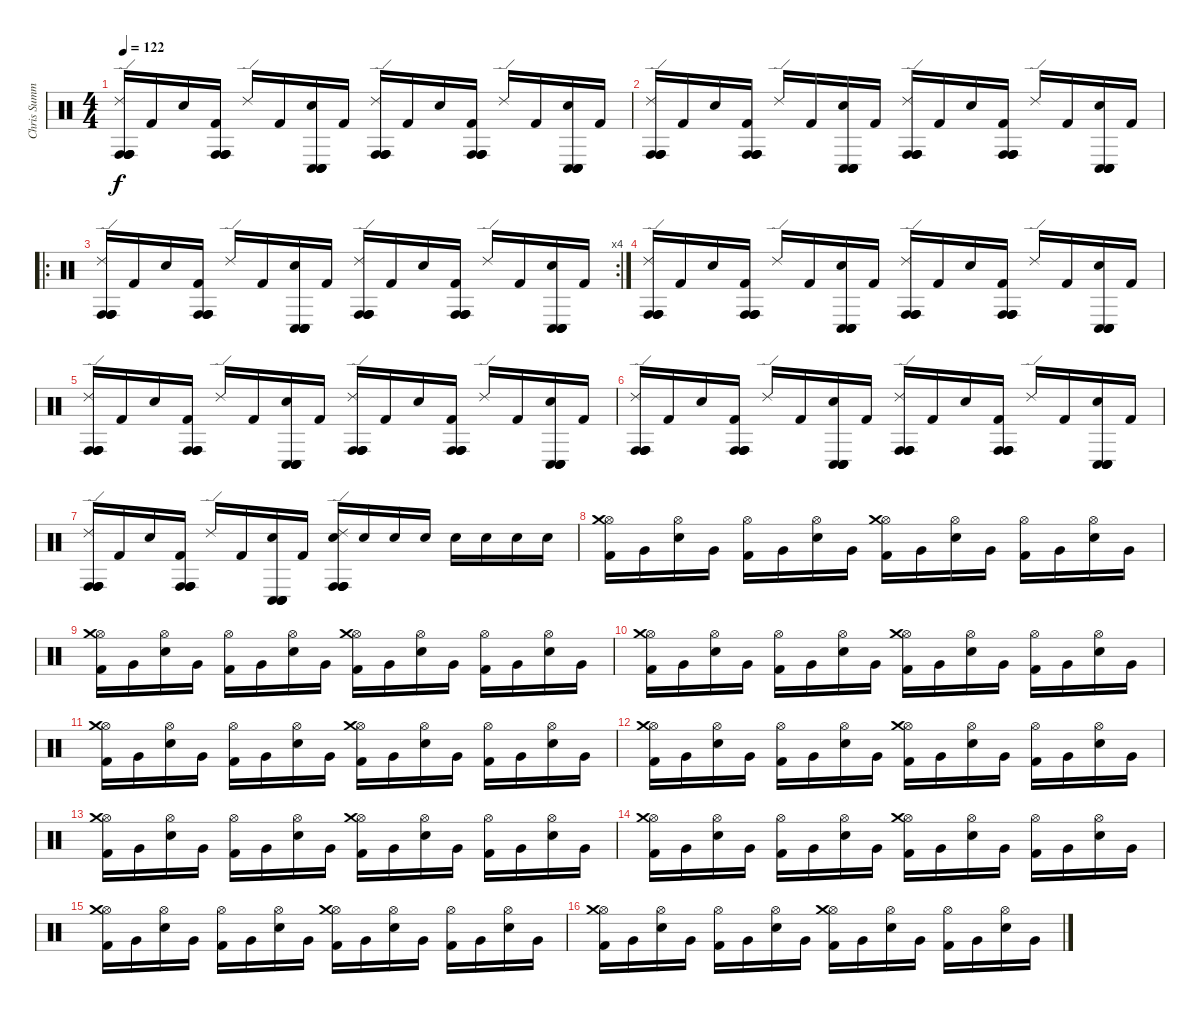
\track ("Chris Summers" "Chris Summ") {instrument percussion}
\staff {score}
\articulation defaults
\ts (4 4)
\tempo 122
\clef neutral
\ks c
("Conga high (hit)" "Ride (edge) 2" "Conga high (hit)" "Conga high (hit)" "Conga high (hit)").16{dy f} "Kick (hit) 2".16 "Electric Snare (hit)".16 ("Kick (hit) 2" "Conga high (hit)" "Conga high (hit)" "Conga high (hit)" "Conga high (hit)").16 "Ride (edge) 2".16 "Kick (hit) 2".16 ("Electric Snare (hit)" "Conga low (hit)" "Conga low (hit)" "Conga low (hit)" "Conga low (hit)").16 "Kick (hit) 2".16 ("Conga high (hit)" "Ride (edge) 2" "Conga high (hit)" "Conga high (hit)" "Conga high (hit)").16 "Kick (hit) 2".16 "Electric Snare (hit)".16 ("Kick (hit) 2" "Conga high (hit)" "Conga high (hit)" "Conga high (hit)" "Conga high (hit)").16 "Ride (edge) 2".16 "Kick (hit) 2".16 ("Electric Snare (hit)" "Conga low (hit)" "Conga low (hit)" "Conga low (hit)" "Conga low (hit)").16 "Kick (hit) 2".16 |
("Conga high (hit)" "Ride (edge) 2" "Conga high (hit)" "Conga high (hit)" "Conga high (hit)").16 "Kick (hit) 2".16 "Electric Snare (hit)".16 ("Kick (hit) 2" "Conga high (hit)" "Conga high (hit)" "Conga high (hit)" "Conga high (hit)").16 "Ride (edge) 2".16 "Kick (hit) 2".16 ("Electric Snare (hit)" "Conga low (hit)" "Conga low (hit)" "Conga low (hit)" "Conga low (hit)").16 "Kick (hit) 2".16 ("Conga high (hit)" "Ride (edge) 2" "Conga high (hit)" "Conga high (hit)" "Conga high (hit)").16 "Kick (hit) 2".16 "Electric Snare (hit)".16 ("Kick (hit) 2" "Conga high (hit)" "Conga high (hit)" "Conga high (hit)" "Conga high (hit)").16 "Ride (edge) 2".16 "Kick (hit) 2".16 ("Electric Snare (hit)" "Conga low (hit)" "Conga low (hit)" "Conga low (hit)" "Conga low (hit)").16 "Kick (hit) 2".16 |
\ro
\rc 4
("Conga high (hit)" "Ride (edge) 2" "Conga high (hit)" "Conga high (hit)" "Conga high (hit)").16 "Kick (hit) 2".16 "Electric Snare (hit)".16 ("Kick (hit) 2" "Conga high (hit)" "Conga high (hit)" "Conga high (hit)" "Conga high (hit)").16 "Ride (edge) 2".16 "Kick (hit) 2".16 ("Electric Snare (hit)" "Conga low (hit)" "Conga low (hit)" "Conga low (hit)" "Conga low (hit)").16 "Kick (hit) 2".16 ("Conga high (hit)" "Ride (edge) 2" "Conga high (hit)" "Conga high (hit)" "Conga high (hit)").16 "Kick (hit) 2".16 "Electric Snare (hit)".16 ("Kick (hit) 2" "Conga high (hit)" "Conga high (hit)" "Conga high (hit)" "Conga high (hit)").16 "Ride (edge) 2".16 "Kick (hit) 2".16 ("Electric Snare (hit)" "Conga low (hit)" "Conga low (hit)" "Conga low (hit)" "Conga low (hit)").16 "Kick (hit) 2".16 |
("Conga high (hit)" "Ride (edge) 2" "Conga high (hit)" "Conga high (hit)" "Conga high (hit)").16 "Kick (hit) 2".16 "Electric Snare (hit)".16 ("Kick (hit) 2" "Conga high (hit)" "Conga high (hit)" "Conga high (hit)" "Conga high (hit)").16 "Ride (edge) 2".16 "Kick (hit) 2".16 ("Electric Snare (hit)" "Conga low (hit)" "Conga low (hit)" "Conga low (hit)" "Conga low (hit)").16 "Kick (hit) 2".16 ("Conga high (hit)" "Ride (edge) 2" "Conga high (hit)" "Conga high (hit)" "Conga high (hit)").16 "Kick (hit) 2".16 "Electric Snare (hit)".16 ("Kick (hit) 2" "Conga high (hit)" "Conga high (hit)" "Conga high (hit)" "Conga high (hit)").16 "Ride (edge) 2".16 "Kick (hit) 2".16 ("Electric Snare (hit)" "Conga low (hit)" "Conga low (hit)" "Conga low (hit)" "Conga low (hit)").16 "Kick (hit) 2".16 |
("Conga high (hit)" "Ride (edge) 2" "Conga high (hit)" "Conga high (hit)" "Conga high (hit)").16 "Kick (hit) 2".16 "Electric Snare (hit)".16 ("Kick (hit) 2" "Conga high (hit)" "Conga high (hit)" "Conga high (hit)" "Conga high (hit)").16 "Ride (edge) 2".16 "Kick (hit) 2".16 ("Electric Snare (hit)" "Conga low (hit)" "Conga low (hit)" "Conga low (hit)" "Conga low (hit)").16 "Kick (hit) 2".16 ("Conga high (hit)" "Ride (edge) 2" "Conga high (hit)" "Conga high (hit)" "Conga high (hit)").16 "Kick (hit) 2".16 "Electric Snare (hit)".16 ("Kick (hit) 2" "Conga high (hit)" "Conga high (hit)" "Conga high (hit)" "Conga high (hit)").16 "Ride (edge) 2".16 "Kick (hit) 2".16 ("Electric Snare (hit)" "Conga low (hit)" "Conga low (hit)" "Conga low (hit)" "Conga low (hit)").16 "Kick (hit) 2".16 |
("Conga high (hit)" "Ride (edge) 2" "Conga high (hit)" "Conga high (hit)" "Conga high (hit)").16 "Kick (hit) 2".16 "Electric Snare (hit)".16 ("Kick (hit) 2" "Conga high (hit)" "Conga high (hit)" "Conga high (hit)" "Conga high (hit)").16 "Ride (edge) 2".16 "Kick (hit) 2".16 ("Electric Snare (hit)" "Conga low (hit)" "Conga low (hit)" "Conga low (hit)" "Conga low (hit)").16 "Kick (hit) 2".16 ("Conga high (hit)" "Ride (edge) 2" "Conga high (hit)" "Conga high (hit)" "Conga high (hit)").16 "Kick (hit) 2".16 "Electric Snare (hit)".16 ("Kick (hit) 2" "Conga high (hit)" "Conga high (hit)" "Conga high (hit)" "Conga high (hit)").16 "Ride (edge) 2".16 "Kick (hit) 2".16 ("Electric Snare (hit)" "Conga low (hit)" "Conga low (hit)" "Conga low (hit)" "Conga low (hit)").16 "Kick (hit) 2".16 |
("Conga high (hit)" "Ride (edge) 2" "Conga high (hit)" "Conga high (hit)" "Conga high (hit)").16 "Kick (hit) 2".16 "Electric Snare (hit)".16 ("Kick (hit) 2" "Conga high (hit)" "Conga high (hit)" "Conga high (hit)" "Conga high (hit)").16 "Ride (edge) 2".16 "Kick (hit) 2".16 ("Electric Snare (hit)" "Conga low (hit)" "Conga low (hit)" "Conga low (hit)" "Conga low (hit)").16 "Kick (hit) 2".16 ("Electric Snare (hit)" "Conga high (hit)" "Ride (edge) 2" "Conga high (hit)" "Conga high (hit)" "Conga high (hit)").16 "Electric Snare (hit)".16 "Electric Snare (hit)".16 "Electric Snare (hit)".16 "Electric Snare (hit)".16 "Electric Snare (hit)".16 "Electric Snare (hit)".16 "Electric Snare (hit)".16 |
("Kick (hit) 2" "Hi-Hat (open)" "Crash medium (hit)").16 "Very Low Tom (hit)".16 ("Electric Snare (hit)" "Hi-Hat (open)").16 "Very Low Tom (hit)".16 ("Kick (hit) 2" "Hi-Hat (open)").16 "Very Low Tom (hit)".16 ("Electric Snare (hit)" "Hi-Hat (open)").16 "Very Low Tom (hit)".16 ("Kick (hit) 2" "Hi-Hat (open)" "Crash medium (hit)").16 "Very Low Tom (hit)".16 ("Electric Snare (hit)" "Hi-Hat (open)").16 "Very Low Tom (hit)".16 ("Kick (hit) 2" "Hi-Hat (open)").16 "Very Low Tom (hit)".16 ("Electric Snare (hit)" "Hi-Hat (open)").16 "Very Low Tom (hit)".16 |
("Kick (hit) 2" "Hi-Hat (open)" "Crash medium (hit)").16 "Very Low Tom (hit)".16 ("Electric Snare (hit)" "Hi-Hat (open)").16 "Very Low Tom (hit)".16 ("Kick (hit) 2" "Hi-Hat (open)").16 "Very Low Tom (hit)".16 ("Electric Snare (hit)" "Hi-Hat (open)").16 "Very Low Tom (hit)".16 ("Kick (hit) 2" "Hi-Hat (open)" "Crash medium (hit)").16 "Very Low Tom (hit)".16 ("Electric Snare (hit)" "Hi-Hat (open)").16 "Very Low Tom (hit)".16 ("Kick (hit) 2" "Hi-Hat (open)").16 "Very Low Tom (hit)".16 ("Electric Snare (hit)" "Hi-Hat (open)").16 "Very Low Tom (hit)".16 |
("Kick (hit) 2" "Hi-Hat (open)" "Crash medium (hit)").16 "Very Low Tom (hit)".16 ("Electric Snare (hit)" "Hi-Hat (open)").16 "Very Low Tom (hit)".16 ("Kick (hit) 2" "Hi-Hat (open)").16 "Very Low Tom (hit)".16 ("Electric Snare (hit)" "Hi-Hat (open)").16 "Very Low Tom (hit)".16 ("Kick (hit) 2" "Hi-Hat (open)" "Crash medium (hit)").16 "Very Low Tom (hit)".16 ("Electric Snare (hit)" "Hi-Hat (open)").16 "Very Low Tom (hit)".16 ("Kick (hit) 2" "Hi-Hat (open)").16 "Very Low Tom (hit)".16 ("Electric Snare (hit)" "Hi-Hat (open)").16 "Very Low Tom (hit)".16 |
("Kick (hit) 2" "Hi-Hat (open)" "Crash medium (hit)").16 "Very Low Tom (hit)".16 ("Electric Snare (hit)" "Hi-Hat (open)").16 "Very Low Tom (hit)".16 ("Kick (hit) 2" "Hi-Hat (open)").16 "Very Low Tom (hit)".16 ("Electric Snare (hit)" "Hi-Hat (open)").16 "Very Low Tom (hit)".16 ("Kick (hit) 2" "Hi-Hat (open)" "Crash medium (hit)").16 "Very Low Tom (hit)".16 ("Electric Snare (hit)" "Hi-Hat (open)").16 "Very Low Tom (hit)".16 ("Kick (hit) 2" "Hi-Hat (open)").16 "Very Low Tom (hit)".16 ("Electric Snare (hit)" "Hi-Hat (open)").16 "Very Low Tom (hit)".16 |
("Kick (hit) 2" "Hi-Hat (open)" "Crash medium (hit)").16 "Very Low Tom (hit)".16 ("Electric Snare (hit)" "Hi-Hat (open)").16 "Very Low Tom (hit)".16 ("Kick (hit) 2" "Hi-Hat (open)").16 "Very Low Tom (hit)".16 ("Electric Snare (hit)" "Hi-Hat (open)").16 "Very Low Tom (hit)".16 ("Kick (hit) 2" "Hi-Hat (open)" "Crash medium (hit)").16 "Very Low Tom (hit)".16 ("Electric Snare (hit)" "Hi-Hat (open)").16 "Very Low Tom (hit)".16 ("Kick (hit) 2" "Hi-Hat (open)").16 "Very Low Tom (hit)".16 ("Electric Snare (hit)" "Hi-Hat (open)").16 "Very Low Tom (hit)".16 |
("Kick (hit) 2" "Hi-Hat (open)" "Crash medium (hit)").16 "Very Low Tom (hit)".16 ("Electric Snare (hit)" "Hi-Hat (open)").16 "Very Low Tom (hit)".16 ("Kick (hit) 2" "Hi-Hat (open)").16 "Very Low Tom (hit)".16 ("Electric Snare (hit)" "Hi-Hat (open)").16 "Very Low Tom (hit)".16 ("Kick (hit) 2" "Hi-Hat (open)" "Crash medium (hit)").16 "Very Low Tom (hit)".16 ("Electric Snare (hit)" "Hi-Hat (open)").16 "Very Low Tom (hit)".16 ("Kick (hit) 2" "Hi-Hat (open)").16 "Very Low Tom (hit)".16 ("Electric Snare (hit)" "Hi-Hat (open)").16 "Very Low Tom (hit)".16 |
("Kick (hit) 2" "Hi-Hat (open)" "Crash medium (hit)").16 "Very Low Tom (hit)".16 ("Electric Snare (hit)" "Hi-Hat (open)").16 "Very Low Tom (hit)".16 ("Kick (hit) 2" "Hi-Hat (open)").16 "Very Low Tom (hit)".16 ("Electric Snare (hit)" "Hi-Hat (open)").16 "Very Low Tom (hit)".16 ("Kick (hit) 2" "Hi-Hat (open)" "Crash medium (hit)").16 "Very Low Tom (hit)".16 ("Electric Snare (hit)" "Hi-Hat (open)").16 "Very Low Tom (hit)".16 ("Kick (hit) 2" "Hi-Hat (open)").16 "Very Low Tom (hit)".16 ("Electric Snare (hit)" "Hi-Hat (open)").16 "Very Low Tom (hit)".16 |
("Kick (hit) 2" "Hi-Hat (open)" "Crash medium (hit)").16 "Very Low Tom (hit)".16 ("Electric Snare (hit)" "Hi-Hat (open)").16 "Very Low Tom (hit)".16 ("Kick (hit) 2" "Hi-Hat (open)").16 "Very Low Tom (hit)".16 ("Electric Snare (hit)" "Hi-Hat (open)").16 "Very Low Tom (hit)".16 ("Kick (hit) 2" "Hi-Hat (open)" "Crash medium (hit)").16 "Very Low Tom (hit)".16 ("Electric Snare (hit)" "Hi-Hat (open)").16 "Very Low Tom (hit)".16 ("Kick (hit) 2" "Hi-Hat (open)").16 "Very Low Tom (hit)".16 ("Electric Snare (hit)" "Hi-Hat (open)").16 "Very Low Tom (hit)".16 |
("Kick (hit) 2" "Hi-Hat (open)" "Crash medium (hit)").16 "Very Low Tom (hit)".16 ("Electric Snare (hit)" "Hi-Hat (open)").16 "Very Low Tom (hit)".16 ("Kick (hit) 2" "Hi-Hat (open)").16 "Very Low Tom (hit)".16 ("Electric Snare (hit)" "Hi-Hat (open)").16 "Very Low Tom (hit)".16 ("Kick (hit) 2" "Hi-Hat (open)" "Crash medium (hit)").16 "Very Low Tom (hit)".16 ("Electric Snare (hit)" "Hi-Hat (open)").16 "Very Low Tom (hit)".16 ("Kick (hit) 2" "Hi-Hat (open)").16 "Very Low Tom (hit)".16 ("Electric Snare (hit)" "Hi-Hat (open)").16 "Very Low Tom (hit)".16
